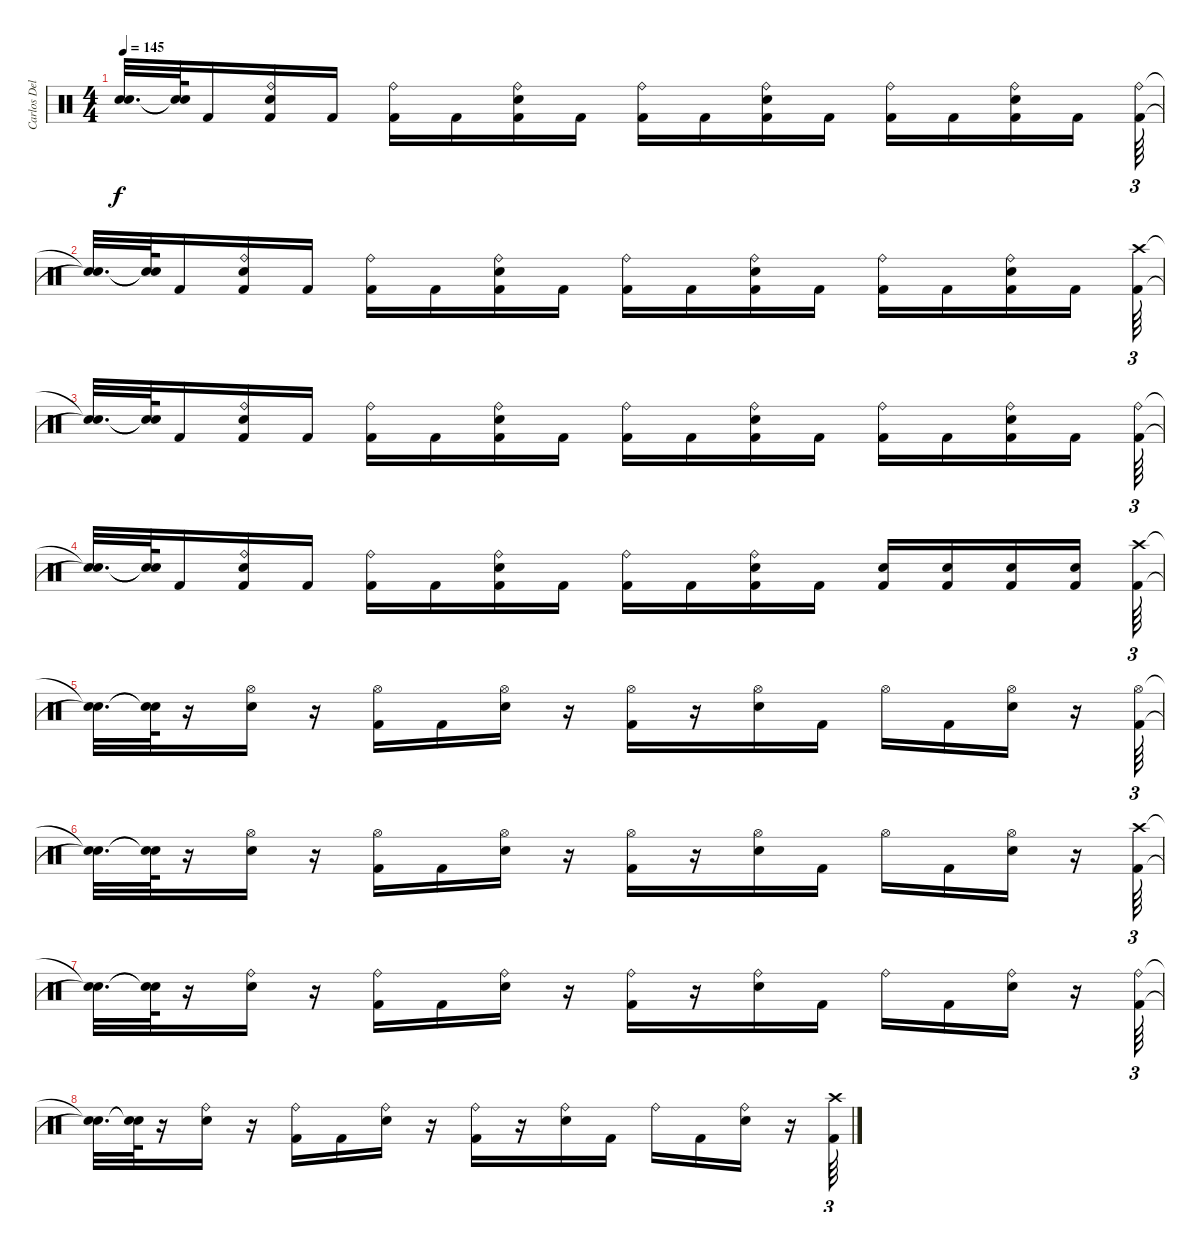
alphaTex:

\track ("Carlos Delgado" "Carlos Del") {instrument percussion}
\staff {score}
\articulation defaults
\ts (4 4)
\tempo 145
\clef neutral
\ks c
("Snare (hit)"{t} "Snare (hit)"{t}).32{d dy f} ("Snare (hit)"{t} "Snare (hit)"{t}).64 "Kick (hit) 2".16 ("Ride (bell)" "Kick (hit) 2" "Electric Snare (hit)").16 "Kick (hit) 2".16 ("Kick (hit) 2" "Ride (bell)").16 "Kick (hit) 2".16 ("Kick (hit) 2" "Electric Snare (hit)" "Ride (bell)").16 "Kick (hit) 2".16 ("Kick (hit) 2" "Ride (bell)").16 "Kick (hit) 2".16 ("Kick (hit) 2" "Electric Snare (hit)" "Ride (bell)").16 "Kick (hit) 2".16 ("Ride (bell)" "Kick (hit) 2").16 "Kick (hit) 2".16 ("Kick (hit) 2" "Electric Snare (hit)" "Ride (bell)").16 "Kick (hit) 2".16 ("Kick (hit) 2" "Ride (bell)").64{tu (3 2)} |
("Snare (hit)"{t} "Snare (hit)"{t}).32{d} ("Snare (hit)"{t} "Snare (hit)"{t}).64 "Kick (hit) 2".16 ("Ride (bell)" "Kick (hit) 2" "Electric Snare (hit)").16 "Kick (hit) 2".16 ("Kick (hit) 2" "Ride (bell)").16 "Kick (hit) 2".16 ("Kick (hit) 2" "Electric Snare (hit)" "Ride (bell)").16 "Kick (hit) 2".16 ("Kick (hit) 2" "Ride (bell)").16 "Kick (hit) 2".16 ("Kick (hit) 2" "Ride (bell)" "Electric Snare (hit)").16 "Kick (hit) 2".16 ("Kick (hit) 2" "Ride (bell)").16 "Kick (hit) 2".16 ("Ride (bell)" "Kick (hit) 2" "Electric Snare (hit)").16 "Kick (hit) 2".16 ("Kick (hit) 2" "Crash high (hit)").64{tu (3 2)} |
("Snare (hit)"{t} "Snare (hit)"{t}).32{d} ("Snare (hit)"{t} "Snare (hit)"{t}).64 "Kick (hit) 2".16 ("Ride (bell)" "Kick (hit) 2" "Electric Snare (hit)").16 "Kick (hit) 2".16 ("Kick (hit) 2" "Ride (bell)").16 "Kick (hit) 2".16 ("Kick (hit) 2" "Electric Snare (hit)" "Ride (bell)").16 "Kick (hit) 2".16 ("Kick (hit) 2" "Ride (bell)").16 "Kick (hit) 2".16 ("Kick (hit) 2" "Electric Snare (hit)" "Ride (bell)").16 "Kick (hit) 2".16 ("Ride (bell)" "Kick (hit) 2").16 "Kick (hit) 2".16 ("Kick (hit) 2" "Electric Snare (hit)" "Ride (bell)").16 "Kick (hit) 2".16 ("Kick (hit) 2" "Ride (bell)").64{tu (3 2)} |
("Snare (hit)"{t} "Snare (hit)"{t}).32{d} ("Snare (hit)"{t} "Snare (hit)"{t}).64 "Kick (hit) 2".16 ("Ride (bell)" "Kick (hit) 2" "Electric Snare (hit)").16 "Kick (hit) 2".16 ("Kick (hit) 2" "Ride (bell)").16 "Kick (hit) 2".16 ("Kick (hit) 2" "Electric Snare (hit)" "Ride (bell)").16 "Kick (hit) 2".16 ("Kick (hit) 2" "Ride (bell)").16 "Kick (hit) 2".16 ("Kick (hit) 2" "Ride (bell)" "Electric Snare (hit)").16 "Kick (hit) 2".16 ("Electric Snare (hit)" "Kick (hit) 2").16 ("Kick (hit) 2" "Electric Snare (hit)").16 ("Kick (hit) 2" "Electric Snare (hit)").16 ("Electric Snare (hit)" "Kick (hit) 2").16 ("Kick (hit) 2" "Crash high (hit)").64{tu (3 2)} |
("Snare (hit)"{t} "Snare (hit)"{t}).32{d} ("Snare (hit)"{t} "Snare (hit)"{t}).64 r.16 ("Hi-Hat (open)" "Electric Snare (hit)").16 r.16 ("Hi-Hat (open)" "Kick (hit) 2").16 "Kick (hit) 2".16 ("Hi-Hat (open)" "Electric Snare (hit)").16 r.16 ("Hi-Hat (open)" "Kick (hit) 2").16 r.16 ("Hi-Hat (open)" "Electric Snare (hit)").16 "Kick (hit) 2".16 "Hi-Hat (open)".16 "Kick (hit) 2".16 ("Hi-Hat (open)" "Electric Snare (hit)").16 r.16 ("Hi-Hat (open)" "Kick (hit) 2").64{tu (3 2)} |
("Snare (hit)"{t} "Snare (hit)"{t}).32{d} ("Snare (hit)"{t} "Snare (hit)"{t}).64 r.16 ("Hi-Hat (open)" "Electric Snare (hit)").16 r.16 ("Hi-Hat (open)" "Kick (hit) 2").16 "Kick (hit) 2".16 ("Hi-Hat (open)" "Electric Snare (hit)").16 r.16 ("Hi-Hat (open)" "Kick (hit) 2").16 r.16 ("Hi-Hat (open)" "Electric Snare (hit)").16 "Kick (hit) 2".16 "Hi-Hat (open)".16 "Kick (hit) 2".16 ("Hi-Hat (open)" "Electric Snare (hit)").16 r.16 ("Crash high (hit)" "Kick (hit) 2").64{tu (3 2)} |
("Snare (hit)"{t} "Snare (hit)"{t}).32{d} ("Snare (hit)"{t} "Snare (hit)"{t}).64 r.16 ("Ride (bell)" "Electric Snare (hit)").16 r.16 ("Kick (hit) 2" "Ride (bell)").16 "Kick (hit) 2".16 ("Ride (bell)" "Electric Snare (hit)").16 r.16 ("Ride (bell)" "Kick (hit) 2").16 r.16 ("Electric Snare (hit)" "Ride (bell)").16 "Kick (hit) 2".16 "Ride (bell)".16 "Kick (hit) 2".16 ("Electric Snare (hit)" "Ride (bell)").16 r.16 ("Ride (bell)" "Kick (hit) 2").64{tu (3 2)} |
("Snare (hit)"{t} "Snare (hit)"{t}).32{d} ("Snare (hit)"{t} "Snare (hit)"{t}).64 r.16 ("Ride (bell)" "Electric Snare (hit)").16 r.16 ("Kick (hit) 2" "Ride (bell)").16 "Kick (hit) 2".16 ("Electric Snare (hit)" "Ride (bell)").16 r.16 ("Kick (hit) 2" "Ride (bell)").16 r.16 ("Ride (bell)" "Electric Snare (hit)").16 "Kick (hit) 2".16 "Ride (bell)".16 "Kick (hit) 2".16 ("Electric Snare (hit)" "Ride (bell)").16 r.16 ("Crash high (hit)" "Kick (hit) 2").64{tu (3 2)}
